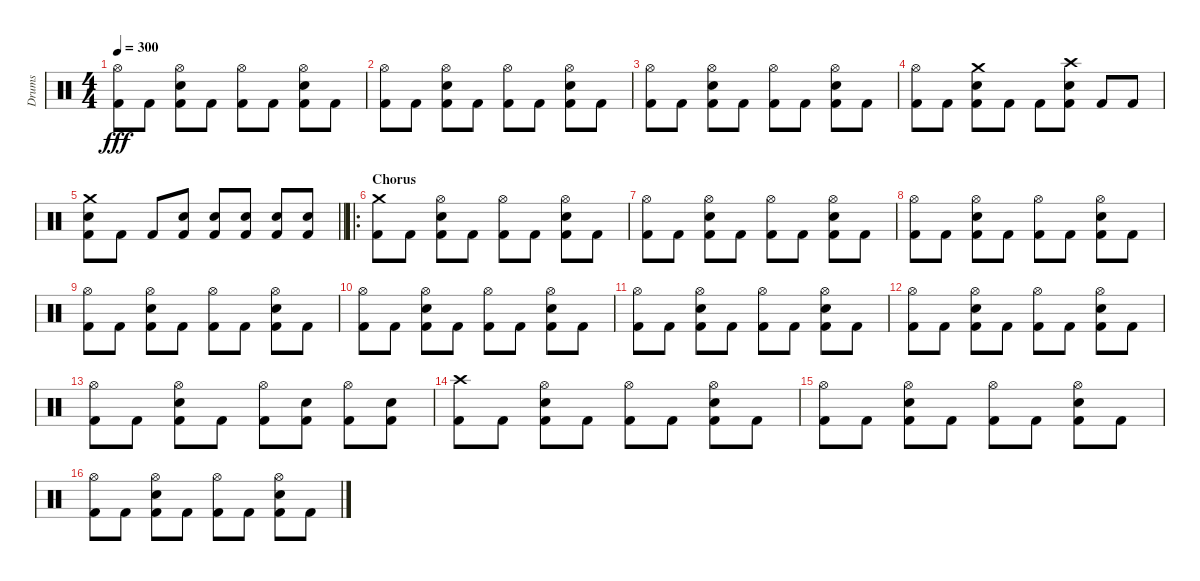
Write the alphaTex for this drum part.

\track ("Drums" "Drums") {instrument percussion}
\staff {score}
\articulation defaults
\ts (4 4)
\tempo 300
\clef neutral
\ks c
("Hi-Hat (open)" "Kick (hit) 2").8{dy fff} "Kick (hit) 2".8 ("Hi-Hat (open)" "Snare (hit) 2" "Kick (hit) 2").8 "Kick (hit) 2".8 ("Hi-Hat (open)" "Kick (hit) 2").8 "Kick (hit) 2".8 ("Hi-Hat (open)" "Snare (hit) 2" "Kick (hit) 2").8 "Kick (hit) 2".8 |
("Hi-Hat (open)" "Kick (hit) 2").8 "Kick (hit) 2".8 ("Hi-Hat (open)" "Snare (hit) 2" "Kick (hit) 2").8 "Kick (hit) 2".8 ("Hi-Hat (open)" "Kick (hit) 2").8 "Kick (hit) 2".8 ("Hi-Hat (open)" "Snare (hit) 2" "Kick (hit) 2").8 "Kick (hit) 2".8 |
("Hi-Hat (open)" "Kick (hit) 2").8 "Kick (hit) 2".8 ("Hi-Hat (open)" "Snare (hit) 2" "Kick (hit) 2").8 "Kick (hit) 2".8 ("Hi-Hat (open)" "Kick (hit) 2").8 "Kick (hit) 2".8 ("Hi-Hat (open)" "Snare (hit) 2" "Kick (hit) 2").8 "Kick (hit) 2".8 |
("Hi-Hat (open)" "Kick (hit) 2").8 "Kick (hit) 2".8 ("Crash medium (hit)" "Snare (hit) 2" "Kick (hit) 2").8 "Kick (hit) 2".8 "Kick (hit) 2".8 ("Crash high (hit)" "Snare (hit) 2" "Kick (hit) 2").8 "Kick (hit) 2".8 "Kick (hit) 2".8 |
\barLineRight lightlight
("Crash medium (hit)" "Snare (hit) 2" "Kick (hit) 2").8 "Kick (hit) 2".8 "Kick (hit) 2".8 ("Snare (hit) 2" "Kick (hit) 2").8 ("Snare (hit) 2" "Kick (hit) 2").8 ("Snare (hit) 2" "Kick (hit) 2").8 ("Snare (hit) 2" "Kick (hit) 2").8 ("Snare (hit) 2" "Kick (hit) 2").8 |
\ro
\section ("" "Chorus")
("Crash medium (hit)" "Kick (hit) 2").8 "Kick (hit) 2".8 ("Hi-Hat (open)" "Snare (hit) 2" "Kick (hit) 2").8 "Kick (hit) 2".8 ("Hi-Hat (open)" "Kick (hit) 2").8 "Kick (hit) 2".8 ("Hi-Hat (open)" "Snare (hit) 2" "Kick (hit) 2").8 "Kick (hit) 2".8 |
("Hi-Hat (open)" "Kick (hit) 2").8 "Kick (hit) 2".8 ("Hi-Hat (open)" "Snare (hit) 2" "Kick (hit) 2").8 "Kick (hit) 2".8 ("Hi-Hat (open)" "Kick (hit) 2").8 "Kick (hit) 2".8 ("Hi-Hat (open)" "Snare (hit) 2" "Kick (hit) 2").8 "Kick (hit) 2".8 |
("Hi-Hat (open)" "Kick (hit) 2").8 "Kick (hit) 2".8 ("Hi-Hat (open)" "Snare (hit) 2" "Kick (hit) 2").8 "Kick (hit) 2".8 ("Hi-Hat (open)" "Kick (hit) 2").8 "Kick (hit) 2".8 ("Hi-Hat (open)" "Snare (hit) 2" "Kick (hit) 2").8 "Kick (hit) 2".8 |
("Hi-Hat (open)" "Kick (hit) 2").8 "Kick (hit) 2".8 ("Hi-Hat (open)" "Snare (hit) 2" "Kick (hit) 2").8 "Kick (hit) 2".8 ("Hi-Hat (open)" "Kick (hit) 2").8 "Kick (hit) 2".8 ("Hi-Hat (open)" "Snare (hit) 2" "Kick (hit) 2").8 "Kick (hit) 2".8 |
("Hi-Hat (open)" "Kick (hit) 2").8 "Kick (hit) 2".8 ("Hi-Hat (open)" "Snare (hit) 2" "Kick (hit) 2").8 "Kick (hit) 2".8 ("Hi-Hat (open)" "Kick (hit) 2").8 "Kick (hit) 2".8 ("Hi-Hat (open)" "Snare (hit) 2" "Kick (hit) 2").8 "Kick (hit) 2".8 |
("Hi-Hat (open)" "Kick (hit) 2").8 "Kick (hit) 2".8 ("Hi-Hat (open)" "Snare (hit) 2" "Kick (hit) 2").8 "Kick (hit) 2".8 ("Hi-Hat (open)" "Kick (hit) 2").8 "Kick (hit) 2".8 ("Hi-Hat (open)" "Snare (hit) 2" "Kick (hit) 2").8 "Kick (hit) 2".8 |
("Hi-Hat (open)" "Kick (hit) 2").8 "Kick (hit) 2".8 ("Hi-Hat (open)" "Snare (hit) 2" "Kick (hit) 2").8 "Kick (hit) 2".8 ("Hi-Hat (open)" "Kick (hit) 2").8 "Kick (hit) 2".8 ("Hi-Hat (open)" "Snare (hit) 2" "Kick (hit) 2").8 "Kick (hit) 2".8 |
("Hi-Hat (open)" "Kick (hit) 2").8 "Kick (hit) 2".8 ("Hi-Hat (open)" "Snare (hit) 2" "Kick (hit) 2").8 "Kick (hit) 2".8 ("Hi-Hat (open)" "Kick (hit) 2").8 ("Snare (hit) 2" "Kick (hit) 2").8 ("Hi-Hat (open)" "Kick (hit) 2").8 ("Snare (hit) 2" "Kick (hit) 2").8 |
("Crash high (hit)" "Kick (hit) 2").8 "Kick (hit) 2".8 ("Hi-Hat (open)" "Snare (hit) 2" "Kick (hit) 2").8 "Kick (hit) 2".8 ("Hi-Hat (open)" "Kick (hit) 2").8 "Kick (hit) 2".8 ("Hi-Hat (open)" "Snare (hit) 2" "Kick (hit) 2").8 "Kick (hit) 2".8 |
("Hi-Hat (open)" "Kick (hit) 2").8 "Kick (hit) 2".8 ("Hi-Hat (open)" "Snare (hit) 2" "Kick (hit) 2").8 "Kick (hit) 2".8 ("Hi-Hat (open)" "Kick (hit) 2").8 "Kick (hit) 2".8 ("Hi-Hat (open)" "Snare (hit) 2" "Kick (hit) 2").8 "Kick (hit) 2".8 |
("Hi-Hat (open)" "Kick (hit) 2").8 "Kick (hit) 2".8 ("Hi-Hat (open)" "Snare (hit) 2" "Kick (hit) 2").8 "Kick (hit) 2".8 ("Hi-Hat (open)" "Kick (hit) 2").8 "Kick (hit) 2".8 ("Hi-Hat (open)" "Snare (hit) 2" "Kick (hit) 2").8 "Kick (hit) 2".8
